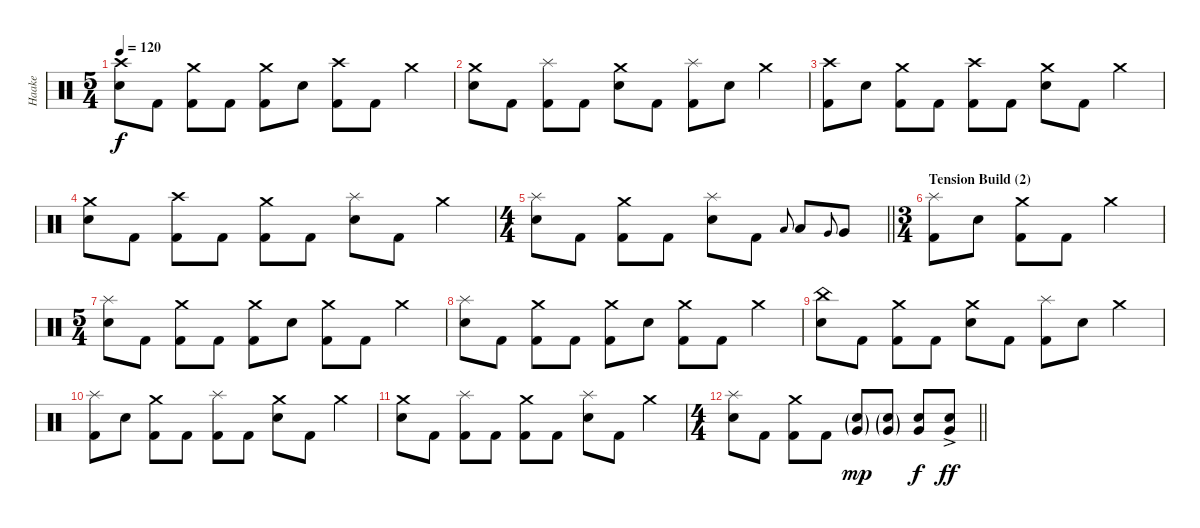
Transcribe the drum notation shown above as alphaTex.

\track ("Haake" "Haake") {instrument percussion}
\staff {score}
\articulation defaults
\ts (5 4)
\tempo 120
\clef neutral
\ks c
("Crash high (hit)" "Electric Snare (hit)").8{dy f} "Kick (hit) 2".8 ("Crash medium (hit)" "Kick (hit) 2").8 "Kick (hit) 2".8 ("Crash medium (hit)" "Kick (hit) 2").8 "Electric Snare (hit)".8 ("Crash high (hit)" "Kick (hit) 2").8 "Kick (hit) 2".8 "Crash medium (hit)".4 |
("Crash medium (hit)" "Electric Snare (hit)").8 "Kick (hit) 2".8 ("Splash (hit)" "Kick (hit) 2").8 "Kick (hit) 2".8 ("Crash medium (hit)" "Electric Snare (hit)").8 "Kick (hit) 2".8 ("Splash (hit)" "Kick (hit) 2").8 "Electric Snare (hit)".8 "Crash medium (hit)".4 |
("Crash high (hit)" "Kick (hit) 2").8 "Electric Snare (hit)".8 ("Crash medium (hit)" "Kick (hit) 2").8 "Kick (hit) 2".8 ("Crash high (hit)" "Kick (hit) 2").8 "Kick (hit) 2".8 ("Crash medium (hit)" "Electric Snare (hit)").8 "Kick (hit) 2".8 "Crash medium (hit)".4 |
("Crash medium (hit)" "Electric Snare (hit)").8 "Kick (hit) 2".8 ("Crash high (hit)" "Kick (hit) 2").8 "Kick (hit) 2".8 ("Crash medium (hit)" "Kick (hit) 2").8 "Kick (hit) 2".8 ("Splash (hit)" "Electric Snare (hit)").8 "Kick (hit) 2".8 "Crash medium (hit)".4 |
\ts (4 4)
\barLineRight lightlight
("Splash (hit)" "Electric Snare (hit)").8 "Kick (hit) 2".8 ("Crash medium (hit)" "Kick (hit) 2").8 "Kick (hit) 2".8 ("Splash (hit)" "Electric Snare (hit)").8 "Kick (hit) 2".8 "Low Tom (hit)".8{gr onbeat} "Low Tom (hit)".8 "Very Low Tom (hit)".8{gr onbeat} "Very Low Tom (hit)".8 |
\ts (3 4)
\section ("" "Tension Build (2)")
("Splash (hit)" "Kick (hit) 2").8 "Electric Snare (hit)".8 ("Crash medium (hit)" "Kick (hit) 2").8 "Kick (hit) 2".8 "Crash medium (hit)".4 |
\ts (5 4)
("Splash (hit)" "Electric Snare (hit)").8 "Kick (hit) 2".8 ("Crash medium (hit)" "Kick (hit) 2").8 "Kick (hit) 2".8 ("Crash medium (hit)" "Kick (hit) 2").8 "Electric Snare (hit)".8 ("Crash medium (hit)" "Kick (hit) 2").8 "Kick (hit) 2".8 "Crash medium (hit)".4 |
("Splash (hit)" "Electric Snare (hit)").8 "Kick (hit) 2".8 ("Crash medium (hit)" "Kick (hit) 2").8 "Kick (hit) 2".8 ("Crash medium (hit)" "Kick (hit) 2").8 "Electric Snare (hit)".8 ("Crash medium (hit)" "Kick (hit) 2").8 "Kick (hit) 2".8 "Crash medium (hit)".4 |
("China (hit)" "Electric Snare (hit)").8 "Kick (hit) 2".8 ("Crash medium (hit)" "Kick (hit) 2").8 "Kick (hit) 2".8 ("Crash medium (hit)" "Electric Snare (hit)").8 "Kick (hit) 2".8 ("Splash (hit)" "Kick (hit) 2").8 "Electric Snare (hit)".8 "Crash medium (hit)".4 |
("Splash (hit)" "Kick (hit) 2").8 "Electric Snare (hit)".8 ("Crash medium (hit)" "Kick (hit) 2").8 "Kick (hit) 2".8 ("Splash (hit)" "Kick (hit) 2").8 "Kick (hit) 2".8 ("Crash medium (hit)" "Electric Snare (hit)").8 "Kick (hit) 2".8 "Crash medium (hit)".4 |
("Crash medium (hit)" "Electric Snare (hit)").8 "Kick (hit) 2".8 ("Splash (hit)" "Kick (hit) 2").8 "Kick (hit) 2".8 ("Crash medium (hit)" "Kick (hit) 2").8 "Kick (hit) 2".8 ("Splash (hit)" "Electric Snare (hit)").8 "Kick (hit) 2".8 "Crash medium (hit)".4 |
\ts (4 4)
\barLineRight lightlight
("Splash (hit)" "Electric Snare (hit)").8 "Kick (hit) 2".8 ("Crash medium (hit)" "Kick (hit) 2").8 "Kick (hit) 2".8 ("Electric Snare (hit)"{g} "Very Low Tom (hit)"{g}).8{dy mp} ("Electric Snare (hit)"{g} "Very Low Tom (hit)"{g}).8 ("Electric Snare (hit)" "Very Low Tom (hit)").8{dy f} ("Electric Snare (hit)"{ac} "Very Low Tom (hit)"{ac}).8{dy ff}
